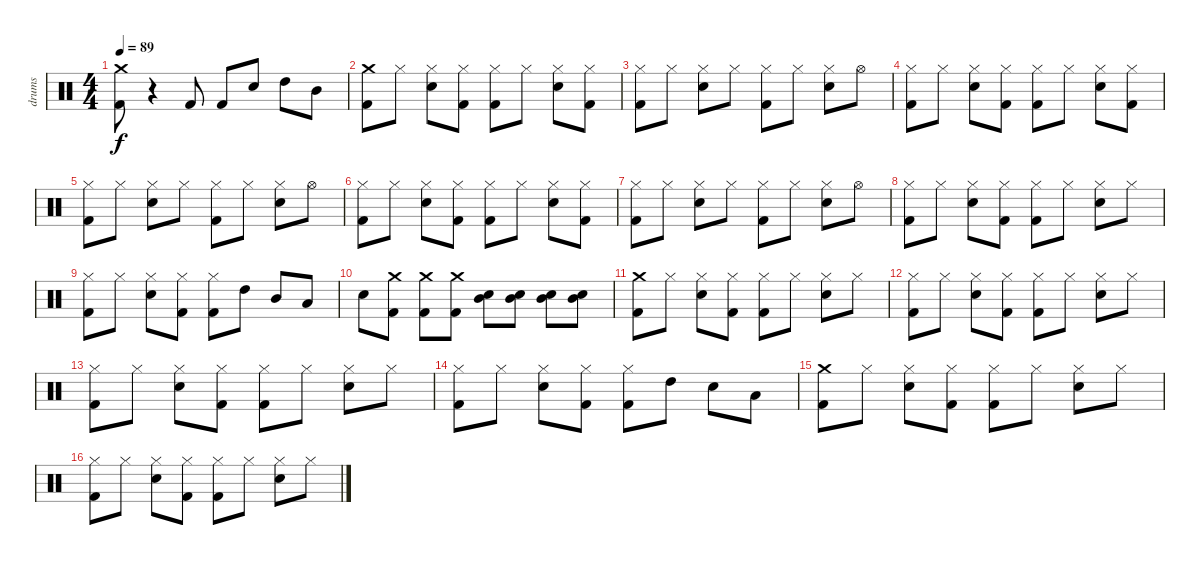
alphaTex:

\track ("drums" "drums") {instrument percussion}
\staff {score}
\articulation defaults
\ts (4 4)
\tempo 89
\clef neutral
\ks c
("Kick (hit) 2" "Crash medium (hit)").8{dy f} r.4 "Kick (hit) 2".8 "Kick (hit) 2".8 "Snare (hit) 2".8 "High Tom (hit)".8 "Mid Tom (hit)".8 |
("Kick (hit) 2" "Crash medium (hit)").8 "Hi-Hat (closed)".8 ("Snare (hit) 2" "Hi-Hat (closed)").8 ("Kick (hit) 2" "Hi-Hat (closed)").8 ("Kick (hit) 2" "Hi-Hat (closed)").8 "Hi-Hat (closed)".8 ("Snare (hit) 2" "Hi-Hat (closed)").8 ("Kick (hit) 2" "Hi-Hat (closed)").8 |
("Kick (hit) 2" "Hi-Hat (closed)").8 "Hi-Hat (closed)".8 ("Snare (hit) 2" "Hi-Hat (closed)").8 "Hi-Hat (closed)".8 ("Kick (hit) 2" "Hi-Hat (closed)").8 "Hi-Hat (closed)".8 ("Snare (hit) 2" "Hi-Hat (closed)").8 "Hi-Hat (open)".8 |
("Kick (hit) 2" "Hi-Hat (closed)").8 "Hi-Hat (closed)".8 ("Snare (hit) 2" "Hi-Hat (closed)").8 ("Kick (hit) 2" "Hi-Hat (closed)").8 ("Kick (hit) 2" "Hi-Hat (closed)").8 "Hi-Hat (closed)".8 ("Snare (hit) 2" "Hi-Hat (closed)").8 ("Kick (hit) 2" "Hi-Hat (closed)").8 |
("Kick (hit) 2" "Hi-Hat (closed)").8 "Hi-Hat (closed)".8 ("Snare (hit) 2" "Hi-Hat (closed)").8 "Hi-Hat (closed)".8 ("Kick (hit) 2" "Hi-Hat (closed)").8 "Hi-Hat (closed)".8 ("Snare (hit) 2" "Hi-Hat (closed)").8 "Hi-Hat (open)".8 |
("Kick (hit) 2" "Hi-Hat (closed)").8 "Hi-Hat (closed)".8 ("Snare (hit) 2" "Hi-Hat (closed)").8 ("Kick (hit) 2" "Hi-Hat (closed)").8 ("Kick (hit) 2" "Hi-Hat (closed)").8 "Hi-Hat (closed)".8 ("Snare (hit) 2" "Hi-Hat (closed)").8 ("Kick (hit) 2" "Hi-Hat (closed)").8 |
("Kick (hit) 2" "Hi-Hat (closed)").8 "Hi-Hat (closed)".8 ("Snare (hit) 2" "Hi-Hat (closed)").8 "Hi-Hat (closed)".8 ("Kick (hit) 2" "Hi-Hat (closed)").8 "Hi-Hat (closed)".8 ("Snare (hit) 2" "Hi-Hat (closed)").8 "Hi-Hat (open)".8 |
("Kick (hit) 2" "Hi-Hat (closed)").8 "Hi-Hat (closed)".8 ("Snare (hit) 2" "Hi-Hat (closed)").8 ("Kick (hit) 2" "Hi-Hat (closed)").8 ("Kick (hit) 2" "Hi-Hat (closed)").8 "Hi-Hat (closed)".8 ("Snare (hit) 2" "Hi-Hat (closed)").8 "Hi-Hat (closed)".8 |
("Kick (hit) 2" "Hi-Hat (closed)").8 "Hi-Hat (closed)".8 ("Snare (hit) 2" "Hi-Hat (closed)").8 ("Kick (hit) 2" "Hi-Hat (closed)").8 ("Kick (hit) 2" "Hi-Hat (closed)").8 "High Tom (hit)".8 "Mid Tom (hit)".8 "Low Tom (hit)".8 |
"Snare (hit) 2".8 ("Crash medium (hit)" "Kick (hit) 2").8 ("Crash medium (hit)" "Kick (hit) 2").8 ("Crash medium (hit)" "Kick (hit) 2").8 ("Mid Tom (hit)" "Snare (hit) 2").8 ("Mid Tom (hit)" "Snare (hit) 2").8 ("Mid Tom (hit)" "Snare (hit) 2").8 ("Mid Tom (hit)" "Snare (hit) 2").8 |
("Kick (hit) 2" "Crash medium (hit)").8 "Hi-Hat (closed)".8 ("Snare (hit) 2" "Hi-Hat (closed)").8 ("Kick (hit) 2" "Hi-Hat (closed)").8 ("Kick (hit) 2" "Hi-Hat (closed)").8 "Hi-Hat (closed)".8 ("Snare (hit) 2" "Hi-Hat (closed)").8 "Hi-Hat (closed)".8 |
("Kick (hit) 2" "Hi-Hat (closed)").8 "Hi-Hat (closed)".8 ("Snare (hit) 2" "Hi-Hat (closed)").8 ("Kick (hit) 2" "Hi-Hat (closed)").8 ("Kick (hit) 2" "Hi-Hat (closed)").8 "Hi-Hat (closed)".8 ("Snare (hit) 2" "Hi-Hat (closed)").8 "Hi-Hat (closed)".8 |
("Kick (hit) 2" "Hi-Hat (closed)").8 "Hi-Hat (closed)".8 ("Snare (hit) 2" "Hi-Hat (closed)").8 ("Kick (hit) 2" "Hi-Hat (closed)").8 ("Kick (hit) 2" "Hi-Hat (closed)").8 "Hi-Hat (closed)".8 ("Snare (hit) 2" "Hi-Hat (closed)").8 "Hi-Hat (closed)".8 |
("Kick (hit) 2" "Hi-Hat (closed)").8 "Hi-Hat (closed)".8 ("Snare (hit) 2" "Hi-Hat (closed)").8 ("Kick (hit) 2" "Hi-Hat (closed)").8 ("Kick (hit) 2" "Hi-Hat (closed)").8 "High Tom (hit)".8 "Snare (hit) 2".8 "Low Tom (hit)".8 |
("Kick (hit) 2" "Crash medium (hit)").8 "Hi-Hat (closed)".8 ("Snare (hit) 2" "Hi-Hat (closed)").8 ("Kick (hit) 2" "Hi-Hat (closed)").8 ("Kick (hit) 2" "Hi-Hat (closed)").8 "Hi-Hat (closed)".8 ("Snare (hit) 2" "Hi-Hat (closed)").8 "Hi-Hat (closed)".8 |
("Kick (hit) 2" "Hi-Hat (closed)").8 "Hi-Hat (closed)".8 ("Snare (hit) 2" "Hi-Hat (closed)").8 ("Kick (hit) 2" "Hi-Hat (closed)").8 ("Kick (hit) 2" "Hi-Hat (closed)").8 "Hi-Hat (closed)".8 ("Snare (hit) 2" "Hi-Hat (closed)").8 "Hi-Hat (closed)".8
